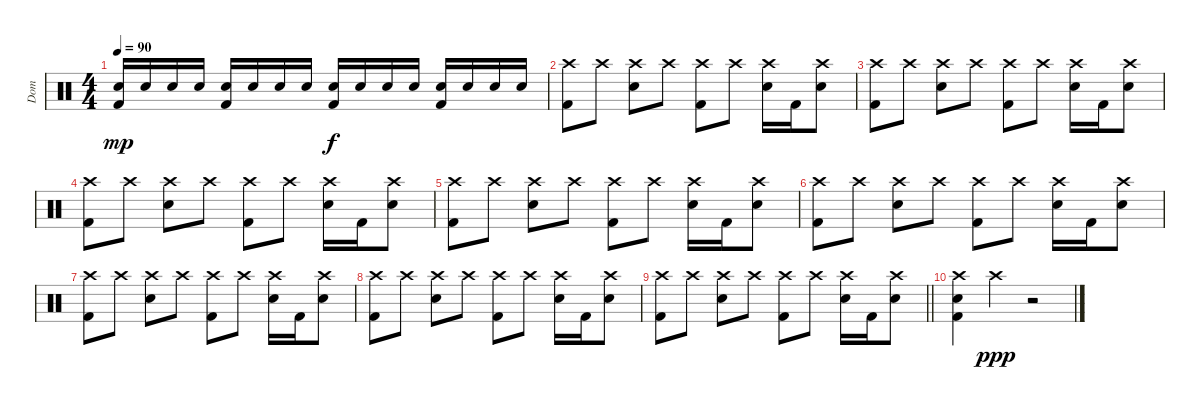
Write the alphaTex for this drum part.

\track ("Dom" "Dom") {instrument percussion}
\staff {score}
\articulation defaults
\ts (4 4)
\tempo 90
\clef neutral
\ks c
("Snare (hit) 2" "Kick (hit) 2").16{dy mp} "Snare (hit) 2".16 "Snare (hit) 2".16 "Snare (hit) 2".16 ("Snare (hit) 2" "Kick (hit) 2").16 "Snare (hit) 2".16 "Snare (hit) 2".16 "Snare (hit) 2".16 ("Snare (hit) 2" "Kick (hit) 2").16{dy f} "Snare (hit) 2".16 "Snare (hit) 2".16 "Snare (hit) 2".16 ("Snare (hit) 2" "Kick (hit) 2").16 "Snare (hit) 2".16 "Snare (hit) 2".16 "Snare (hit) 2".16 |
("Crash high (hit)" "Kick (hit) 2").8 "Crash high (hit)".8 ("Crash high (hit)" "Snare (hit) 2").8 "Crash high (hit)".8 ("Crash high (hit)" "Kick (hit) 2").8 "Crash high (hit)".8 ("Crash high (hit)" "Snare (hit) 2").16 "Kick (hit) 2".16 ("Crash high (hit)" "Snare (hit) 2").8 |
("Crash high (hit)" "Kick (hit) 2").8 "Crash high (hit)".8 ("Crash high (hit)" "Snare (hit) 2").8 "Crash high (hit)".8 ("Crash high (hit)" "Kick (hit) 2").8 "Crash high (hit)".8 ("Crash high (hit)" "Snare (hit) 2").16 "Kick (hit) 2".16 ("Crash high (hit)" "Snare (hit) 2").8 |
("Crash high (hit)" "Kick (hit) 2").8 "Crash high (hit)".8 ("Crash high (hit)" "Snare (hit) 2").8 "Crash high (hit)".8 ("Crash high (hit)" "Kick (hit) 2").8 "Crash high (hit)".8 ("Crash high (hit)" "Snare (hit) 2").16 "Kick (hit) 2".16 ("Crash high (hit)" "Snare (hit) 2").8 |
("Crash high (hit)" "Kick (hit) 2").8 "Crash high (hit)".8 ("Crash high (hit)" "Snare (hit) 2").8 "Crash high (hit)".8 ("Crash high (hit)" "Kick (hit) 2").8 "Crash high (hit)".8 ("Crash high (hit)" "Snare (hit) 2").16 "Kick (hit) 2".16 ("Crash high (hit)" "Snare (hit) 2").8 |
("Crash high (hit)" "Kick (hit) 2").8 "Crash high (hit)".8 ("Crash high (hit)" "Snare (hit) 2").8 "Crash high (hit)".8 ("Crash high (hit)" "Kick (hit) 2").8 "Crash high (hit)".8 ("Crash high (hit)" "Snare (hit) 2").16 "Kick (hit) 2".16 ("Crash high (hit)" "Snare (hit) 2").8 |
("Crash high (hit)" "Kick (hit) 2").8 "Crash high (hit)".8 ("Crash high (hit)" "Snare (hit) 2").8 "Crash high (hit)".8 ("Crash high (hit)" "Kick (hit) 2").8 "Crash high (hit)".8 ("Crash high (hit)" "Snare (hit) 2").16 "Kick (hit) 2".16 ("Crash high (hit)" "Snare (hit) 2").8 |
("Crash high (hit)" "Kick (hit) 2").8 "Crash high (hit)".8 ("Crash high (hit)" "Snare (hit) 2").8 "Crash high (hit)".8 ("Crash high (hit)" "Kick (hit) 2").8 "Crash high (hit)".8 ("Crash high (hit)" "Snare (hit) 2").16 "Kick (hit) 2".16 ("Crash high (hit)" "Snare (hit) 2").8 |
\barLineRight lightlight
("Crash high (hit)" "Kick (hit) 2").8 "Crash high (hit)".8 ("Crash high (hit)" "Snare (hit) 2").8 "Crash high (hit)".8 ("Crash high (hit)" "Kick (hit) 2").8 "Crash high (hit)".8 ("Crash high (hit)" "Snare (hit) 2").16 "Kick (hit) 2".16 ("Crash high (hit)" "Snare (hit) 2").8 |
("Crash high (hit)" "Snare (hit) 2" "Kick (hit) 2").4 "Crash high (hit)".4{dy ppp} r.2
